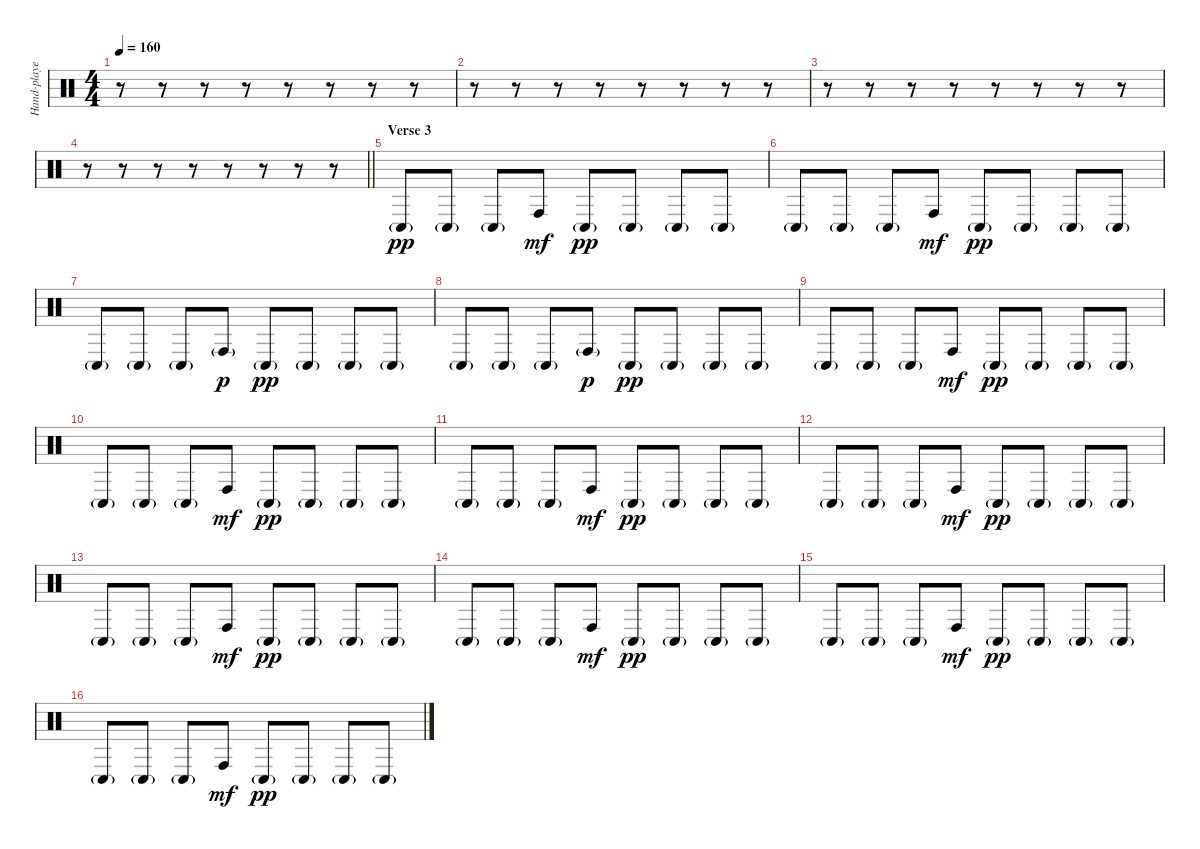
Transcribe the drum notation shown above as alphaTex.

\track ("Hand-played drums" "Hand-playe") {instrument percussion}
\staff {score}
\articulation defaults
\ts (4 4)
\tempo 160
\clef neutral
\ks c
r.8{dy mf} r.8 r.8 r.8 r.8 r.8 r.8 r.8 |
r.8 r.8 r.8 r.8 r.8 r.8 r.8 r.8 |
r.8 r.8 r.8 r.8 r.8 r.8 r.8 r.8 |
\barLineRight lightlight
r.8 r.8 r.8 r.8 r.8 r.8 r.8 r.8 |
\section ("" "Verse 3")
"Conga low (hit)"{g}.8{dy pp} "Conga low (hit)"{g}.8 "Conga low (hit)"{g}.8 "Conga high (hit)".8{dy mf} "Conga low (hit)"{g}.8{dy pp} "Conga low (hit)"{g}.8 "Conga low (hit)"{g}.8 "Conga low (hit)"{g}.8 |
"Conga low (hit)"{g}.8 "Conga low (hit)"{g}.8 "Conga low (hit)"{g}.8 "Conga high (hit)".8{dy mf} "Conga low (hit)"{g}.8{dy pp} "Conga low (hit)"{g}.8 "Conga low (hit)"{g}.8 "Conga low (hit)"{g}.8 |
"Conga low (hit)"{g}.8 "Conga low (hit)"{g}.8 "Conga low (hit)"{g}.8 "Conga high (hit)"{g}.8{dy p} "Conga low (hit)"{g}.8{dy pp} "Conga low (hit)"{g}.8 "Conga low (hit)"{g}.8 "Conga low (hit)"{g}.8 |
"Conga low (hit)"{g}.8 "Conga low (hit)"{g}.8 "Conga low (hit)"{g}.8 "Conga high (hit)"{g}.8{dy p} "Conga low (hit)"{g}.8{dy pp} "Conga low (hit)"{g}.8 "Conga low (hit)"{g}.8 "Conga low (hit)"{g}.8 |
"Conga low (hit)"{g}.8 "Conga low (hit)"{g}.8 "Conga low (hit)"{g}.8 "Conga high (hit)".8{dy mf} "Conga low (hit)"{g}.8{dy pp} "Conga low (hit)"{g}.8 "Conga low (hit)"{g}.8 "Conga low (hit)"{g}.8 |
"Conga low (hit)"{g}.8 "Conga low (hit)"{g}.8 "Conga low (hit)"{g}.8 "Conga high (hit)".8{dy mf} "Conga low (hit)"{g}.8{dy pp} "Conga low (hit)"{g}.8 "Conga low (hit)"{g}.8 "Conga low (hit)"{g}.8 |
"Conga low (hit)"{g}.8 "Conga low (hit)"{g}.8 "Conga low (hit)"{g}.8 "Conga high (hit)".8{dy mf} "Conga low (hit)"{g}.8{dy pp} "Conga low (hit)"{g}.8 "Conga low (hit)"{g}.8 "Conga low (hit)"{g}.8 |
"Conga low (hit)"{g}.8 "Conga low (hit)"{g}.8 "Conga low (hit)"{g}.8 "Conga high (hit)".8{dy mf} "Conga low (hit)"{g}.8{dy pp} "Conga low (hit)"{g}.8 "Conga low (hit)"{g}.8 "Conga low (hit)"{g}.8 |
"Conga low (hit)"{g}.8 "Conga low (hit)"{g}.8 "Conga low (hit)"{g}.8 "Conga high (hit)".8{dy mf} "Conga low (hit)"{g}.8{dy pp} "Conga low (hit)"{g}.8 "Conga low (hit)"{g}.8 "Conga low (hit)"{g}.8 |
"Conga low (hit)"{g}.8 "Conga low (hit)"{g}.8 "Conga low (hit)"{g}.8 "Conga high (hit)".8{dy mf} "Conga low (hit)"{g}.8{dy pp} "Conga low (hit)"{g}.8 "Conga low (hit)"{g}.8 "Conga low (hit)"{g}.8 |
"Conga low (hit)"{g}.8 "Conga low (hit)"{g}.8 "Conga low (hit)"{g}.8 "Conga high (hit)".8{dy mf} "Conga low (hit)"{g}.8{dy pp} "Conga low (hit)"{g}.8 "Conga low (hit)"{g}.8 "Conga low (hit)"{g}.8 |
"Conga low (hit)"{g}.8 "Conga low (hit)"{g}.8 "Conga low (hit)"{g}.8 "Conga high (hit)".8{dy mf} "Conga low (hit)"{g}.8{dy pp} "Conga low (hit)"{g}.8 "Conga low (hit)"{g}.8 "Conga low (hit)"{g}.8
